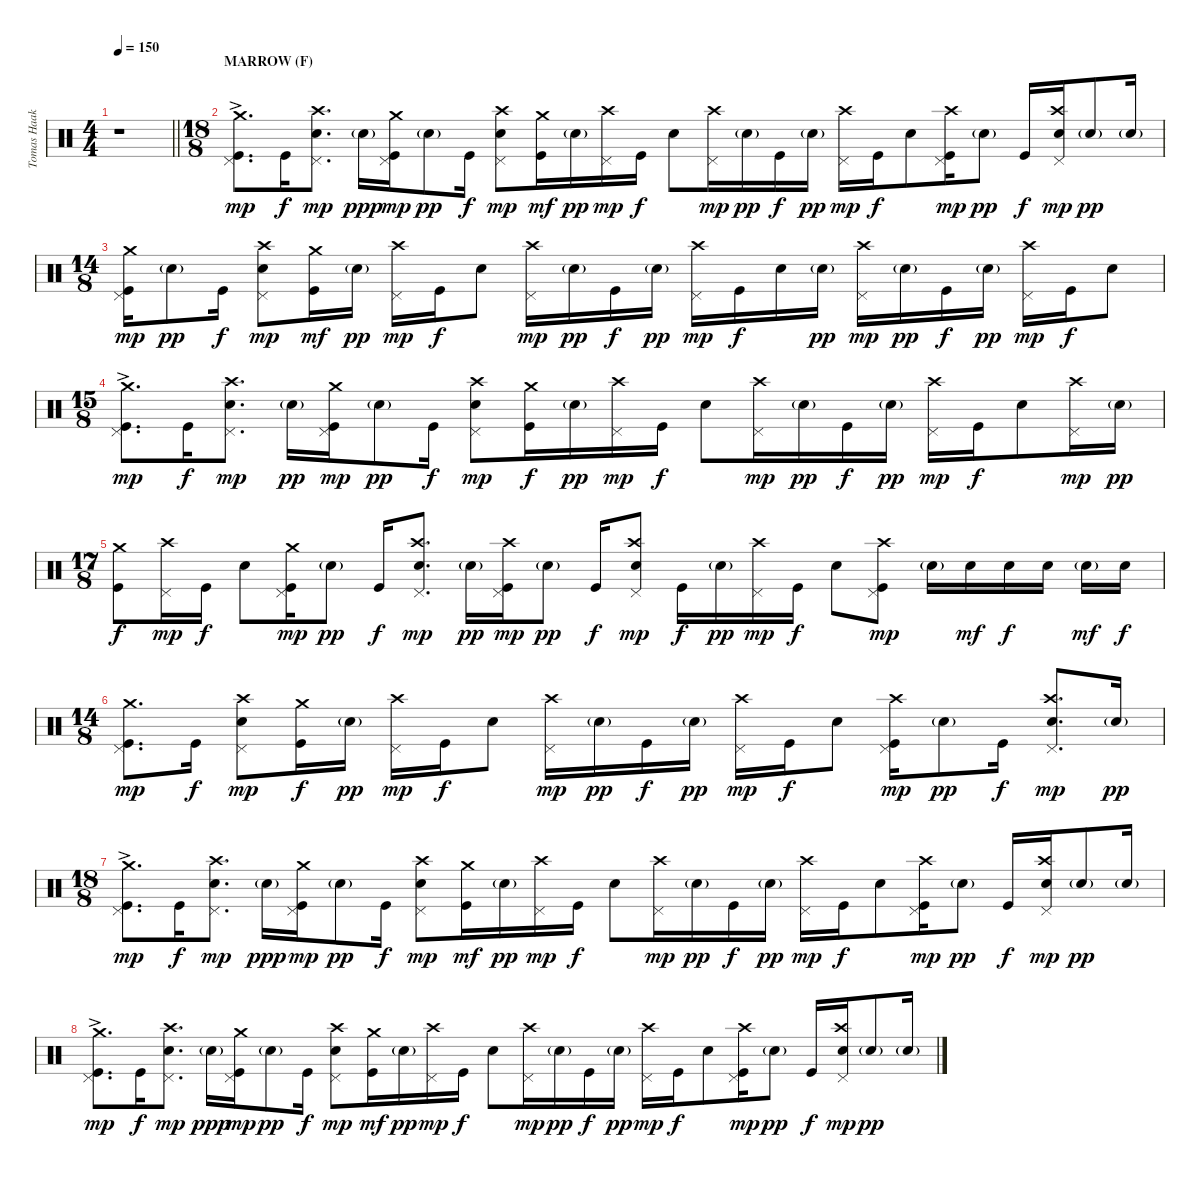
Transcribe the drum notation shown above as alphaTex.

\track ("Tomas Haake (Drums)" "Tomas Haak") {instrument percussion}
\staff {score}
\articulation defaults
\ts (4 4)
\tempo 150
\clef neutral
\barLineRight lightlight
\ks c
r.1{dy mp} |
\ts (18 8)
\section ("" "MARROW (F)")
("Crash medium (hit)"{ac} "Pedal Hi-Hat (hit)" "Kick (hit)").8{d} "Kick (hit)".16{dy f} ("Crash high (hit)" "Pedal Hi-Hat (hit)" "Electric Snare (hit)").8{d dy mp} "Electric Snare (hit)"{g}.16{dy ppp} ("Crash medium (hit)" "Pedal Hi-Hat (hit)" "Kick (hit)").16{dy mp} "Electric Snare (hit)"{g}.8{dy pp} "Kick (hit)".16{dy f} ("Crash high (hit)" "Pedal Hi-Hat (hit)" "Electric Snare (hit)").8{dy mp} ("Crash medium (hit)" "Kick (hit)").16{dy mf} "Electric Snare (hit)"{g}.16{dy pp} ("Crash high (hit)" "Pedal Hi-Hat (hit)").16{dy mp} "Kick (hit)".16{dy f} "Electric Snare (hit)".8 ("Crash high (hit)" "Pedal Hi-Hat (hit)").16{dy mp} "Electric Snare (hit)"{g}.16{dy pp} "Kick (hit)".16{dy f} "Electric Snare (hit)"{g}.16{dy pp} ("Crash high (hit)" "Pedal Hi-Hat (hit)").16{dy mp} "Kick (hit)".16{dy f} "Electric Snare (hit)".8 ("Crash high (hit)" "Pedal Hi-Hat (hit)" "Kick (hit)").16{dy mp} "Electric Snare (hit)"{g}.8{dy pp} "Kick (hit)".16{dy f} ("Crash high (hit)" "Pedal Hi-Hat (hit)" "Electric Snare (hit)").16{dy mp} "Electric Snare (hit)"{g}.8{dy pp} "Electric Snare (hit)"{g}.16 |
\ts (14 8)
("Crash medium (hit)" "Pedal Hi-Hat (hit)" "Kick (hit)").16{dy mp} "Electric Snare (hit)"{g}.8{dy pp} "Kick (hit)".16{dy f} ("Crash high (hit)" "Pedal Hi-Hat (hit)" "Electric Snare (hit)").8{dy mp} ("Crash medium (hit)" "Kick (hit)").16{dy mf} "Electric Snare (hit)"{g}.16{dy pp} ("Crash high (hit)" "Pedal Hi-Hat (hit)").16{dy mp} "Kick (hit)".16{dy f} "Electric Snare (hit)".8 ("Crash high (hit)" "Pedal Hi-Hat (hit)").16{dy mp} "Electric Snare (hit)"{g}.16{dy pp} "Kick (hit)".16{dy f} "Electric Snare (hit)"{g}.16{dy pp} ("Crash high (hit)" "Pedal Hi-Hat (hit)").16{dy mp} "Kick (hit)".16{dy f} "Electric Snare (hit)".16 "Electric Snare (hit)"{g}.16{dy pp} ("Crash high (hit)" "Pedal Hi-Hat (hit)").16{dy mp} "Electric Snare (hit)"{g}.16{dy pp} "Kick (hit)".16{dy f} "Electric Snare (hit)"{g}.16{dy pp} ("Crash high (hit)" "Pedal Hi-Hat (hit)").16{dy mp} "Kick (hit)".16{dy f} "Electric Snare (hit)".8 |
\ts (15 8)
("Crash medium (hit)"{ac} "Pedal Hi-Hat (hit)" "Kick (hit)").8{d dy mp} "Kick (hit)".16{dy f} ("Crash high (hit)" "Pedal Hi-Hat (hit)" "Electric Snare (hit)").8{d dy mp} "Electric Snare (hit)"{g}.16{dy pp} ("Crash medium (hit)" "Pedal Hi-Hat (hit)" "Kick (hit)").16{dy mp} "Electric Snare (hit)"{g}.8{dy pp} "Kick (hit)".16{dy f} ("Crash high (hit)" "Pedal Hi-Hat (hit)" "Electric Snare (hit)").8{dy mp} ("Crash medium (hit)" "Kick (hit)").16{dy f} "Electric Snare (hit)"{g}.16{dy pp} ("Crash high (hit)" "Pedal Hi-Hat (hit)").16{dy mp} "Kick (hit)".16{dy f} "Electric Snare (hit)".8 ("Crash high (hit)" "Pedal Hi-Hat (hit)").16{dy mp} "Electric Snare (hit)"{g}.16{dy pp} "Kick (hit)".16{dy f} "Electric Snare (hit)"{g}.16{dy pp} ("Crash high (hit)" "Pedal Hi-Hat (hit)").16{dy mp} "Kick (hit)".16{dy f} "Electric Snare (hit)".8 ("Crash high (hit)" "Pedal Hi-Hat (hit)").16{dy mp} "Electric Snare (hit)"{g}.16{dy pp} |
\ts (17 8)
("Crash medium (hit)" "Kick (hit)").8{dy f} ("Crash high (hit)" "Pedal Hi-Hat (hit)").16{dy mp} "Kick (hit)".16{dy f} "Electric Snare (hit)".8 ("Crash medium (hit)" "Pedal Hi-Hat (hit)" "Kick (hit)").16{dy mp} "Electric Snare (hit)"{g}.8{dy pp} "Kick (hit)".16{dy f} ("Crash high (hit)" "Pedal Hi-Hat (hit)" "Electric Snare (hit)").8{d dy mp} "Electric Snare (hit)"{g}.16{dy pp} ("Crash high (hit)" "Pedal Hi-Hat (hit)" "Kick (hit)").16{dy mp} "Electric Snare (hit)"{g}.8{dy pp} "Kick (hit)".16{dy f} ("Crash high (hit)" "Pedal Hi-Hat (hit)" "Electric Snare (hit)").8{dy mp} "Kick (hit)".16{dy f} "Electric Snare (hit)"{g}.16{dy pp} ("Crash high (hit)" "Pedal Hi-Hat (hit)").16{dy mp} "Kick (hit)".16{dy f} "Electric Snare (hit)".8 ("Crash high (hit)" "Pedal Hi-Hat (hit)" "Kick (hit)").8{dy mp} "Electric Snare (hit)"{g}.16 "Electric Snare (hit)".16{dy mf} "Electric Snare (hit)".16{dy f} "Electric Snare (hit)".16 "Electric Snare (hit)"{g}.16{dy mf} "Electric Snare (hit)".16{dy f} |
\ts (14 8)
("Crash medium (hit)" "Pedal Hi-Hat (hit)" "Kick (hit)").8{d dy mp} "Kick (hit)".16{dy f} ("Crash high (hit)" "Pedal Hi-Hat (hit)" "Electric Snare (hit)").8{dy mp} ("Crash medium (hit)" "Kick (hit)").16{dy f} "Electric Snare (hit)"{g}.16{dy pp} ("Crash high (hit)" "Pedal Hi-Hat (hit)").16{dy mp} "Kick (hit)".16{dy f} "Electric Snare (hit)".8 ("Crash high (hit)" "Pedal Hi-Hat (hit)").16{dy mp} "Electric Snare (hit)"{g}.16{dy pp} "Kick (hit)".16{dy f} "Electric Snare (hit)"{g}.16{dy pp} ("Crash high (hit)" "Pedal Hi-Hat (hit)").16{dy mp} "Kick (hit)".16{dy f} "Electric Snare (hit)".8 ("Crash high (hit)" "Pedal Hi-Hat (hit)" "Kick (hit)").16{dy mp} "Electric Snare (hit)"{g}.8{dy pp} "Kick (hit)".16{dy f} ("Crash high (hit)" "Pedal Hi-Hat (hit)" "Electric Snare (hit)").8{d dy mp} "Electric Snare (hit)"{g}.16{dy pp} |
\ts (18 8)
("Crash medium (hit)"{ac} "Pedal Hi-Hat (hit)" "Kick (hit)").8{d dy mp} "Kick (hit)".16{dy f} ("Crash high (hit)" "Pedal Hi-Hat (hit)" "Electric Snare (hit)").8{d dy mp} "Electric Snare (hit)"{g}.16{dy ppp} ("Crash medium (hit)" "Pedal Hi-Hat (hit)" "Kick (hit)").16{dy mp} "Electric Snare (hit)"{g}.8{dy pp} "Kick (hit)".16{dy f} ("Crash high (hit)" "Pedal Hi-Hat (hit)" "Electric Snare (hit)").8{dy mp} ("Crash medium (hit)" "Kick (hit)").16{dy mf} "Electric Snare (hit)"{g}.16{dy pp} ("Crash high (hit)" "Pedal Hi-Hat (hit)").16{dy mp} "Kick (hit)".16{dy f} "Electric Snare (hit)".8 ("Crash high (hit)" "Pedal Hi-Hat (hit)").16{dy mp} "Electric Snare (hit)"{g}.16{dy pp} "Kick (hit)".16{dy f} "Electric Snare (hit)"{g}.16{dy pp} ("Crash high (hit)" "Pedal Hi-Hat (hit)").16{dy mp} "Kick (hit)".16{dy f} "Electric Snare (hit)".8 ("Crash high (hit)" "Pedal Hi-Hat (hit)" "Kick (hit)").16{dy mp} "Electric Snare (hit)"{g}.8{dy pp} "Kick (hit)".16{dy f} ("Crash high (hit)" "Pedal Hi-Hat (hit)" "Electric Snare (hit)").16{dy mp} "Electric Snare (hit)"{g}.8{dy pp} "Electric Snare (hit)"{g}.16 |
("Crash medium (hit)"{ac} "Pedal Hi-Hat (hit)" "Kick (hit)").8{d dy mp} "Kick (hit)".16{dy f} ("Crash high (hit)" "Pedal Hi-Hat (hit)" "Electric Snare (hit)").8{d dy mp} "Electric Snare (hit)"{g}.16{dy ppp} ("Crash medium (hit)" "Pedal Hi-Hat (hit)" "Kick (hit)").16{dy mp} "Electric Snare (hit)"{g}.8{dy pp} "Kick (hit)".16{dy f} ("Crash high (hit)" "Pedal Hi-Hat (hit)" "Electric Snare (hit)").8{dy mp} ("Crash medium (hit)" "Kick (hit)").16{dy mf} "Electric Snare (hit)"{g}.16{dy pp} ("Crash high (hit)" "Pedal Hi-Hat (hit)").16{dy mp} "Kick (hit)".16{dy f} "Electric Snare (hit)".8 ("Crash high (hit)" "Pedal Hi-Hat (hit)").16{dy mp} "Electric Snare (hit)"{g}.16{dy pp} "Kick (hit)".16{dy f} "Electric Snare (hit)"{g}.16{dy pp} ("Crash high (hit)" "Pedal Hi-Hat (hit)").16{dy mp} "Kick (hit)".16{dy f} "Electric Snare (hit)".8 ("Crash high (hit)" "Pedal Hi-Hat (hit)" "Kick (hit)").16{dy mp} "Electric Snare (hit)"{g}.8{dy pp} "Kick (hit)".16{dy f} ("Crash high (hit)" "Pedal Hi-Hat (hit)" "Electric Snare (hit)").16{dy mp} "Electric Snare (hit)"{g}.8{dy pp} "Electric Snare (hit)"{g}.16
